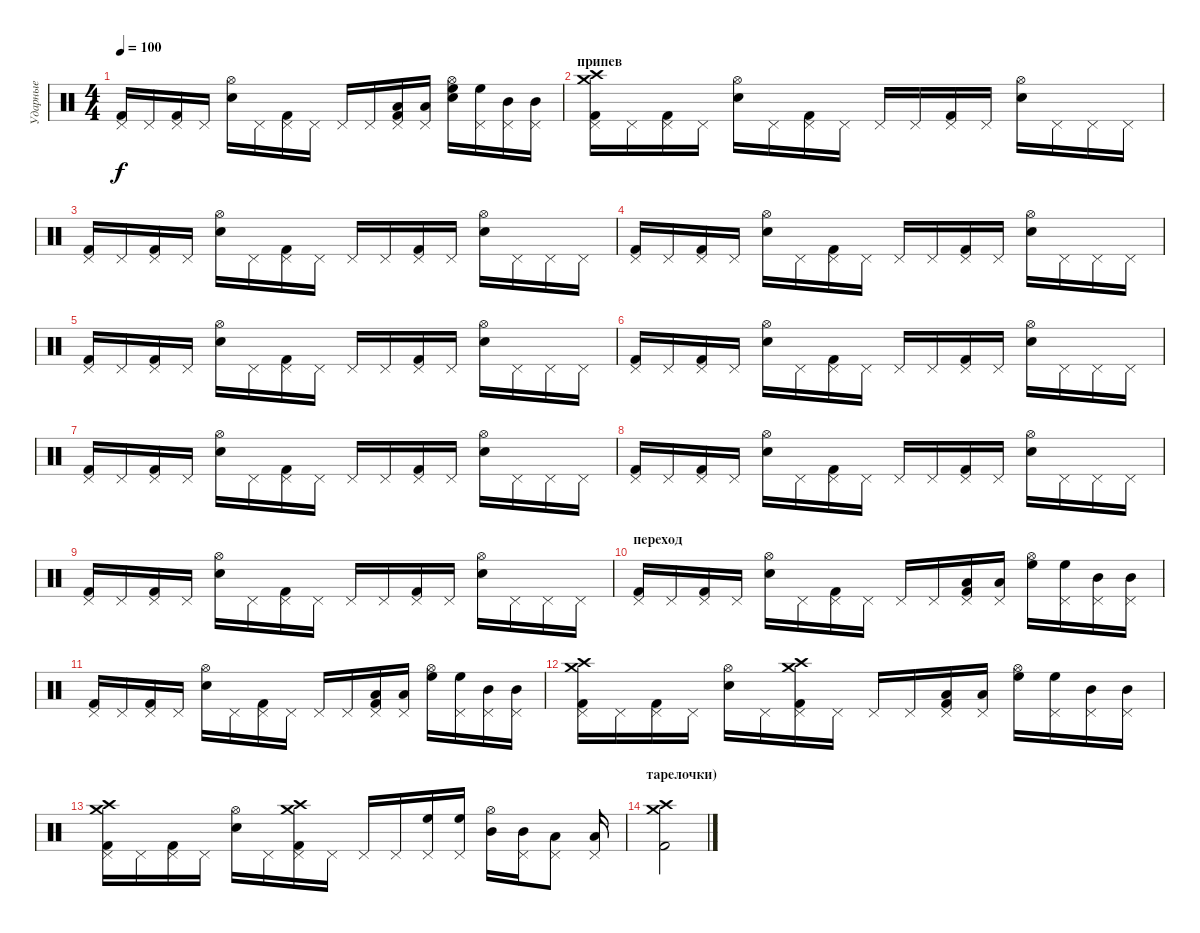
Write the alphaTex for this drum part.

\track ("Ударные" "Ударные") {instrument percussion}
\staff {score}
\articulation defaults
\ts (4 4)
\tempo 100
\clef neutral
\ks c
("Pedal Hi-Hat (hit)" "Kick (hit) 2").16{dy f} "Pedal Hi-Hat (hit)".16 ("Pedal Hi-Hat (hit)" "Kick (hit) 2").16 "Pedal Hi-Hat (hit)".16 ("Hi-Hat (open)" "Snare (hit) 2").16 "Pedal Hi-Hat (hit)".16 ("Pedal Hi-Hat (hit)" "Kick (hit) 2").16 "Pedal Hi-Hat (hit)".16 "Pedal Hi-Hat (hit)".16 "Pedal Hi-Hat (hit)".16 ("Pedal Hi-Hat (hit)" "Kick (hit) 2" "Low Tom (hit)").16 ("Pedal Hi-Hat (hit)" "Low Tom (hit)").16 ("Hi-Hat (open)" "Snare (hit) 2" "High Floor Tom (hit)").16 ("Pedal Hi-Hat (hit)" "High Floor Tom (hit)").16 ("Pedal Hi-Hat (hit)" "Mid Tom (hit)").16 ("Pedal Hi-Hat (hit)" "Mid Tom (hit)").16 |
\section ("" "припев")
("Pedal Hi-Hat (hit)" "Kick (hit) 2" "Crash high (hit)" "Crash medium (hit)").16 "Pedal Hi-Hat (hit)".16 ("Pedal Hi-Hat (hit)" "Kick (hit) 2").16 "Pedal Hi-Hat (hit)".16 ("Hi-Hat (open)" "Snare (hit) 2").16 "Pedal Hi-Hat (hit)".16 ("Pedal Hi-Hat (hit)" "Kick (hit) 2").16 "Pedal Hi-Hat (hit)".16 "Pedal Hi-Hat (hit)".16 "Pedal Hi-Hat (hit)".16 ("Pedal Hi-Hat (hit)" "Kick (hit) 2").16 "Pedal Hi-Hat (hit)".16 ("Hi-Hat (open)" "Snare (hit) 2").16 "Pedal Hi-Hat (hit)".16 "Pedal Hi-Hat (hit)".16 "Pedal Hi-Hat (hit)".16 |
("Pedal Hi-Hat (hit)" "Kick (hit) 2").16 "Pedal Hi-Hat (hit)".16 ("Pedal Hi-Hat (hit)" "Kick (hit) 2").16 "Pedal Hi-Hat (hit)".16 ("Hi-Hat (open)" "Snare (hit) 2").16 "Pedal Hi-Hat (hit)".16 ("Pedal Hi-Hat (hit)" "Kick (hit) 2").16 "Pedal Hi-Hat (hit)".16 "Pedal Hi-Hat (hit)".16 "Pedal Hi-Hat (hit)".16 ("Pedal Hi-Hat (hit)" "Kick (hit) 2").16 "Pedal Hi-Hat (hit)".16 ("Hi-Hat (open)" "Snare (hit) 2").16 "Pedal Hi-Hat (hit)".16 "Pedal Hi-Hat (hit)".16 "Pedal Hi-Hat (hit)".16 |
("Pedal Hi-Hat (hit)" "Kick (hit) 2").16 "Pedal Hi-Hat (hit)".16 ("Pedal Hi-Hat (hit)" "Kick (hit) 2").16 "Pedal Hi-Hat (hit)".16 ("Hi-Hat (open)" "Snare (hit) 2").16 "Pedal Hi-Hat (hit)".16 ("Pedal Hi-Hat (hit)" "Kick (hit) 2").16 "Pedal Hi-Hat (hit)".16 "Pedal Hi-Hat (hit)".16 "Pedal Hi-Hat (hit)".16 ("Pedal Hi-Hat (hit)" "Kick (hit) 2").16 "Pedal Hi-Hat (hit)".16 ("Hi-Hat (open)" "Snare (hit) 2").16 "Pedal Hi-Hat (hit)".16 "Pedal Hi-Hat (hit)".16 "Pedal Hi-Hat (hit)".16 |
("Pedal Hi-Hat (hit)" "Kick (hit) 2").16 "Pedal Hi-Hat (hit)".16 ("Pedal Hi-Hat (hit)" "Kick (hit) 2").16 "Pedal Hi-Hat (hit)".16 ("Hi-Hat (open)" "Snare (hit) 2").16 "Pedal Hi-Hat (hit)".16 ("Pedal Hi-Hat (hit)" "Kick (hit) 2").16 "Pedal Hi-Hat (hit)".16 "Pedal Hi-Hat (hit)".16 "Pedal Hi-Hat (hit)".16 ("Pedal Hi-Hat (hit)" "Kick (hit) 2").16 "Pedal Hi-Hat (hit)".16 ("Hi-Hat (open)" "Snare (hit) 2").16 "Pedal Hi-Hat (hit)".16 "Pedal Hi-Hat (hit)".16 "Pedal Hi-Hat (hit)".16 |
("Pedal Hi-Hat (hit)" "Kick (hit) 2").16 "Pedal Hi-Hat (hit)".16 ("Pedal Hi-Hat (hit)" "Kick (hit) 2").16 "Pedal Hi-Hat (hit)".16 ("Hi-Hat (open)" "Snare (hit) 2").16 "Pedal Hi-Hat (hit)".16 ("Pedal Hi-Hat (hit)" "Kick (hit) 2").16 "Pedal Hi-Hat (hit)".16 "Pedal Hi-Hat (hit)".16 "Pedal Hi-Hat (hit)".16 ("Pedal Hi-Hat (hit)" "Kick (hit) 2").16 "Pedal Hi-Hat (hit)".16 ("Hi-Hat (open)" "Snare (hit) 2").16 "Pedal Hi-Hat (hit)".16 "Pedal Hi-Hat (hit)".16 "Pedal Hi-Hat (hit)".16 |
("Pedal Hi-Hat (hit)" "Kick (hit) 2").16 "Pedal Hi-Hat (hit)".16 ("Pedal Hi-Hat (hit)" "Kick (hit) 2").16 "Pedal Hi-Hat (hit)".16 ("Hi-Hat (open)" "Snare (hit) 2").16 "Pedal Hi-Hat (hit)".16 ("Pedal Hi-Hat (hit)" "Kick (hit) 2").16 "Pedal Hi-Hat (hit)".16 "Pedal Hi-Hat (hit)".16 "Pedal Hi-Hat (hit)".16 ("Pedal Hi-Hat (hit)" "Kick (hit) 2").16 "Pedal Hi-Hat (hit)".16 ("Hi-Hat (open)" "Snare (hit) 2").16 "Pedal Hi-Hat (hit)".16 "Pedal Hi-Hat (hit)".16 "Pedal Hi-Hat (hit)".16 |
("Pedal Hi-Hat (hit)" "Kick (hit) 2").16 "Pedal Hi-Hat (hit)".16 ("Pedal Hi-Hat (hit)" "Kick (hit) 2").16 "Pedal Hi-Hat (hit)".16 ("Hi-Hat (open)" "Snare (hit) 2").16 "Pedal Hi-Hat (hit)".16 ("Pedal Hi-Hat (hit)" "Kick (hit) 2").16 "Pedal Hi-Hat (hit)".16 "Pedal Hi-Hat (hit)".16 "Pedal Hi-Hat (hit)".16 ("Pedal Hi-Hat (hit)" "Kick (hit) 2").16 "Pedal Hi-Hat (hit)".16 ("Hi-Hat (open)" "Snare (hit) 2").16 "Pedal Hi-Hat (hit)".16 "Pedal Hi-Hat (hit)".16 "Pedal Hi-Hat (hit)".16 |
("Pedal Hi-Hat (hit)" "Kick (hit) 2").16 "Pedal Hi-Hat (hit)".16 ("Pedal Hi-Hat (hit)" "Kick (hit) 2").16 "Pedal Hi-Hat (hit)".16 ("Hi-Hat (open)" "Snare (hit) 2").16 "Pedal Hi-Hat (hit)".16 ("Pedal Hi-Hat (hit)" "Kick (hit) 2").16 "Pedal Hi-Hat (hit)".16 "Pedal Hi-Hat (hit)".16 "Pedal Hi-Hat (hit)".16 ("Pedal Hi-Hat (hit)" "Kick (hit) 2").16 "Pedal Hi-Hat (hit)".16 ("Hi-Hat (open)" "Snare (hit) 2").16 "Pedal Hi-Hat (hit)".16 "Pedal Hi-Hat (hit)".16 "Pedal Hi-Hat (hit)".16 |
\section ("" "переход")
("Pedal Hi-Hat (hit)" "Kick (hit) 2").16 "Pedal Hi-Hat (hit)".16 ("Pedal Hi-Hat (hit)" "Kick (hit) 2").16 "Pedal Hi-Hat (hit)".16 ("Hi-Hat (open)" "Snare (hit) 2").16 "Pedal Hi-Hat (hit)".16 ("Pedal Hi-Hat (hit)" "Kick (hit) 2").16 "Pedal Hi-Hat (hit)".16 "Pedal Hi-Hat (hit)".16 "Pedal Hi-Hat (hit)".16 ("Pedal Hi-Hat (hit)" "Kick (hit) 2" "Low Tom (hit)").16 ("Pedal Hi-Hat (hit)" "Low Tom (hit)").16 ("Hi-Hat (open)" "High Floor Tom (hit)").16 ("Pedal Hi-Hat (hit)" "High Floor Tom (hit)").16 ("Pedal Hi-Hat (hit)" "Mid Tom (hit)").16 ("Pedal Hi-Hat (hit)" "Mid Tom (hit)").16 |
("Pedal Hi-Hat (hit)" "Kick (hit) 2").16 "Pedal Hi-Hat (hit)".16 ("Pedal Hi-Hat (hit)" "Kick (hit) 2").16 "Pedal Hi-Hat (hit)".16 ("Hi-Hat (open)" "Snare (hit) 2").16 "Pedal Hi-Hat (hit)".16 ("Pedal Hi-Hat (hit)" "Kick (hit) 2").16 "Pedal Hi-Hat (hit)".16 "Pedal Hi-Hat (hit)".16 "Pedal Hi-Hat (hit)".16 ("Pedal Hi-Hat (hit)" "Kick (hit) 2" "Low Tom (hit)").16 ("Pedal Hi-Hat (hit)" "Low Tom (hit)").16 ("Hi-Hat (open)" "High Floor Tom (hit)").16 ("Pedal Hi-Hat (hit)" "High Floor Tom (hit)").16 ("Pedal Hi-Hat (hit)" "Mid Tom (hit)").16 ("Pedal Hi-Hat (hit)" "Mid Tom (hit)").16 |
("Pedal Hi-Hat (hit)" "Kick (hit) 2" "Crash high (hit)" "Crash medium (hit)").16 "Pedal Hi-Hat (hit)".16 ("Pedal Hi-Hat (hit)" "Kick (hit) 2").16 "Pedal Hi-Hat (hit)".16 ("Hi-Hat (open)" "Snare (hit) 2").16 "Pedal Hi-Hat (hit)".16 ("Pedal Hi-Hat (hit)" "Kick (hit) 2" "Crash medium (hit)" "Crash high (hit)").16 "Pedal Hi-Hat (hit)".16 "Pedal Hi-Hat (hit)".16 "Pedal Hi-Hat (hit)".16 ("Pedal Hi-Hat (hit)" "Kick (hit) 2" "Low Tom (hit)").16 ("Pedal Hi-Hat (hit)" "Low Tom (hit)").16 ("Hi-Hat (open)" "High Floor Tom (hit)").16 ("Pedal Hi-Hat (hit)" "High Floor Tom (hit)").16 ("Pedal Hi-Hat (hit)" "Mid Tom (hit)").16 ("Pedal Hi-Hat (hit)" "Mid Tom (hit)").16 |
("Pedal Hi-Hat (hit)" "Kick (hit) 2" "Crash high (hit)" "Crash medium (hit)").16 "Pedal Hi-Hat (hit)".16 ("Pedal Hi-Hat (hit)" "Kick (hit) 2").16 "Pedal Hi-Hat (hit)".16 ("Hi-Hat (open)" "Snare (hit) 2").16 "Pedal Hi-Hat (hit)".16 ("Pedal Hi-Hat (hit)" "Kick (hit) 2" "Crash high (hit)" "Crash medium (hit)").16 "Pedal Hi-Hat (hit)".16 "Pedal Hi-Hat (hit)".16 "Pedal Hi-Hat (hit)".16 ("Pedal Hi-Hat (hit)" "High Floor Tom (hit)").16 ("Pedal Hi-Hat (hit)" "High Floor Tom (hit)").16 ("Hi-Hat (open)" "Mid Tom (hit)").16 ("Pedal Hi-Hat (hit)" "Mid Tom (hit)").16 ("Pedal Hi-Hat (hit)" "Low Tom (hit)").8 ("Pedal Hi-Hat (hit)" "Low Tom (hit)").16 |
\section ("" "тарелочки)")
("Crash medium (hit)" "Kick (hit) 2" "Crash high (hit)").2
